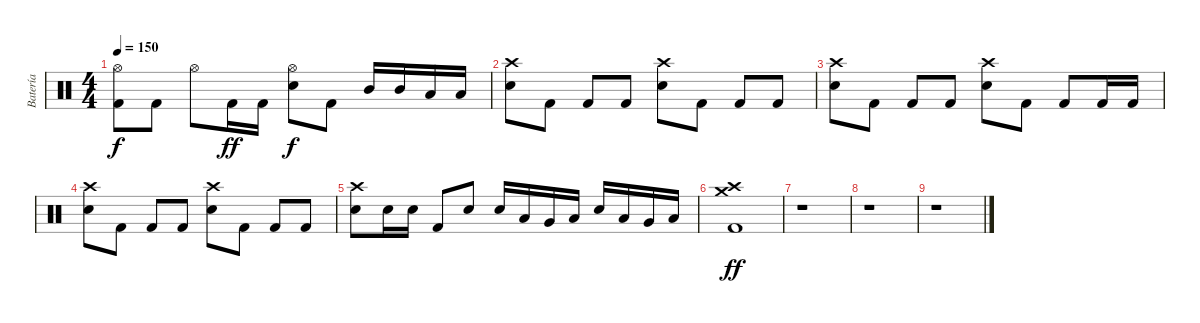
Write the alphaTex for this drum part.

\track ("Batería" "Batería") {instrument percussion}
\staff {score}
\articulation defaults
\ts (4 4)
\tempo 150
\clef neutral
\ks c
("Hi-Hat (open)" "Kick (hit) 2").8{dy f} "Kick (hit) 2".8 "Hi-Hat (open)".8 "Kick (hit) 2".16{dy ff} "Kick (hit) 2".16 ("Hi-Hat (open)" "Electric Snare (hit)").8{dy f} "Kick (hit) 2".8 "Mid Tom (hit)".16 "Mid Tom (hit)".16 "Low Tom (hit)".16 "Low Tom (hit)".16 |
("Crash high (hit)" "Electric Snare (hit)").8 "Kick (hit) 2".8 "Kick (hit) 2".8 "Kick (hit) 2".8 ("Crash high (hit)" "Electric Snare (hit)").8 "Kick (hit) 2".8 "Kick (hit) 2".8 "Kick (hit) 2".8 |
("Crash high (hit)" "Electric Snare (hit)").8 "Kick (hit) 2".8 "Kick (hit) 2".8 "Kick (hit) 2".8 ("Crash high (hit)" "Electric Snare (hit)").8 "Kick (hit) 2".8 "Kick (hit) 2".8 "Kick (hit) 2".16 "Kick (hit) 2".16 |
("Crash high (hit)" "Electric Snare (hit)").8 "Kick (hit) 2".8 "Kick (hit) 2".8 "Kick (hit) 2".8 ("Crash high (hit)" "Electric Snare (hit)").8 "Kick (hit) 2".8 "Kick (hit) 2".8 "Kick (hit) 2".8 |
("Crash high (hit)" "Electric Snare (hit)").8 "Electric Snare (hit)".16 "Electric Snare (hit)".16 "Kick (hit) 2".8 "Electric Snare (hit)".8 "Electric Snare (hit)".16 "Low Tom (hit)".16 "Very Low Tom (hit)".16 "Low Floor Tom (hit)".16 "Electric Snare (hit)".16 "Low Tom (hit)".16 "Very Low Tom (hit)".16 "Low Floor Tom (hit)".16 |
("Crash medium (hit)" "Crash high (hit)" "Kick (hit) 2").1{dy ff} |
r.1 |
r.1 |
r.1
